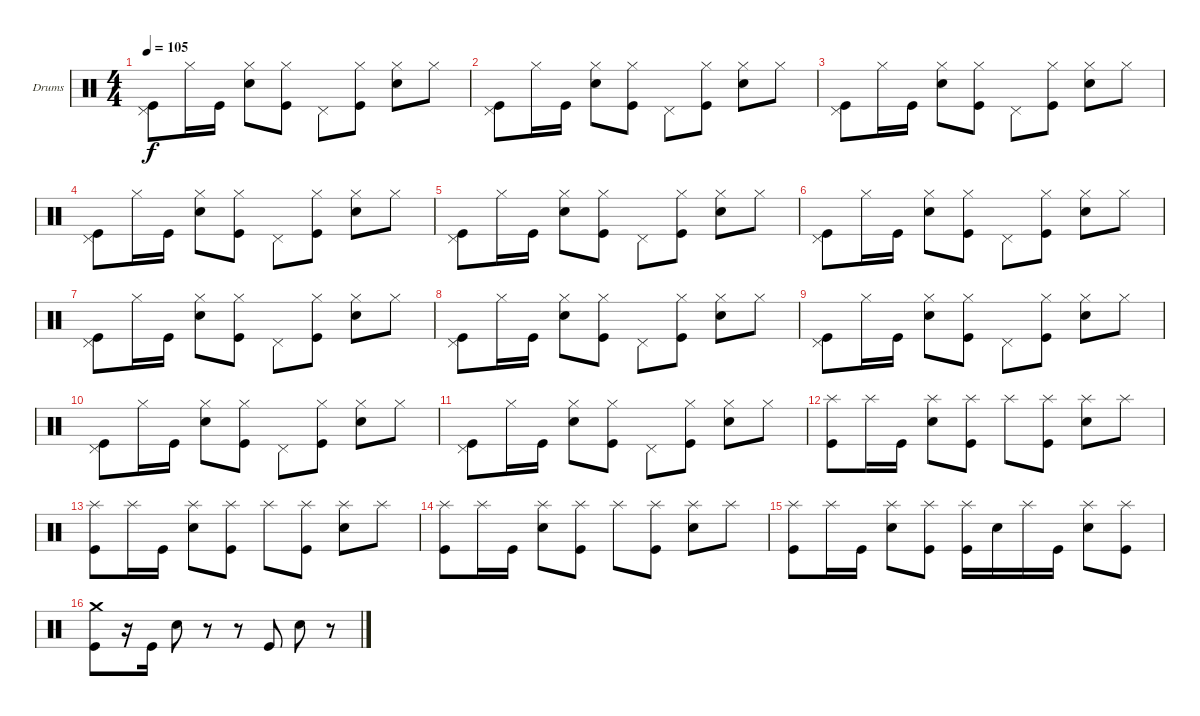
\defaultSystemsLayout 4
\bracketExtendMode nobrackets
\firstSystemTrackNameOrientation horizontal
\otherSystemsTrackNameOrientation horizontal
\track ("Dave Krusen" "Drums") {instrument percussion}
\staff {score}
\articulation defaults
\ts (4 4)
\tempo 105
\clef neutral
\ks c
("Kick (hit)" "Pedal Hi-Hat (hit)").8{dy f} "Hi-Hat (closed)".16 "Kick (hit)".16 ("Snare (hit) 2" "Hi-Hat (closed)").8 ("Kick (hit)" "Hi-Hat (closed)").8 "Pedal Hi-Hat (hit)".8 ("Kick (hit)" "Hi-Hat (closed)").8 ("Snare (hit) 2" "Hi-Hat (closed)").8 "Hi-Hat (closed)".8 |
("Kick (hit)" "Pedal Hi-Hat (hit)").8 "Hi-Hat (closed)".16 "Kick (hit)".16 ("Snare (hit) 2" "Hi-Hat (closed)").8 ("Kick (hit)" "Hi-Hat (closed)").8 "Pedal Hi-Hat (hit)".8 ("Kick (hit)" "Hi-Hat (closed)").8 ("Snare (hit) 2" "Hi-Hat (closed)").8 "Hi-Hat (closed)".8 |
("Kick (hit)" "Pedal Hi-Hat (hit)").8 "Hi-Hat (closed)".16 "Kick (hit)".16 ("Snare (hit) 2" "Hi-Hat (closed)").8 ("Kick (hit)" "Hi-Hat (closed)").8 "Pedal Hi-Hat (hit)".8 ("Kick (hit)" "Hi-Hat (closed)").8 ("Snare (hit) 2" "Hi-Hat (closed)").8 "Hi-Hat (closed)".8 |
("Kick (hit)" "Pedal Hi-Hat (hit)").8 "Hi-Hat (closed)".16 "Kick (hit)".16 ("Snare (hit) 2" "Hi-Hat (closed)").8 ("Kick (hit)" "Hi-Hat (closed)").8 "Pedal Hi-Hat (hit)".8 ("Kick (hit)" "Hi-Hat (closed)").8 ("Snare (hit) 2" "Hi-Hat (closed)").8 "Hi-Hat (closed)".8 |
("Kick (hit)" "Pedal Hi-Hat (hit)").8 "Hi-Hat (closed)".16 "Kick (hit)".16 ("Snare (hit) 2" "Hi-Hat (closed)").8 ("Kick (hit)" "Hi-Hat (closed)").8 "Pedal Hi-Hat (hit)".8 ("Kick (hit)" "Hi-Hat (closed)").8 ("Snare (hit) 2" "Hi-Hat (closed)").8 "Hi-Hat (closed)".8 |
("Kick (hit)" "Pedal Hi-Hat (hit)").8 "Hi-Hat (closed)".16 "Kick (hit)".16 ("Snare (hit) 2" "Hi-Hat (closed)").8 ("Kick (hit)" "Hi-Hat (closed)").8 "Pedal Hi-Hat (hit)".8 ("Kick (hit)" "Hi-Hat (closed)").8 ("Snare (hit) 2" "Hi-Hat (closed)").8 "Hi-Hat (closed)".8 |
("Kick (hit)" "Pedal Hi-Hat (hit)").8 "Hi-Hat (closed)".16 "Kick (hit)".16 ("Snare (hit) 2" "Hi-Hat (closed)").8 ("Kick (hit)" "Hi-Hat (closed)").8 "Pedal Hi-Hat (hit)".8 ("Kick (hit)" "Hi-Hat (closed)").8 ("Snare (hit) 2" "Hi-Hat (closed)").8 "Hi-Hat (closed)".8 |
("Kick (hit)" "Pedal Hi-Hat (hit)").8 "Hi-Hat (closed)".16 "Kick (hit)".16 ("Snare (hit) 2" "Hi-Hat (closed)").8 ("Kick (hit)" "Hi-Hat (closed)").8 "Pedal Hi-Hat (hit)".8 ("Kick (hit)" "Hi-Hat (closed)").8 ("Snare (hit) 2" "Hi-Hat (closed)").8 "Hi-Hat (closed)".8 |
("Kick (hit)" "Pedal Hi-Hat (hit)").8 "Hi-Hat (closed)".16 "Kick (hit)".16 ("Snare (hit) 2" "Hi-Hat (closed)").8 ("Kick (hit)" "Hi-Hat (closed)").8 "Pedal Hi-Hat (hit)".8 ("Kick (hit)" "Hi-Hat (closed)").8 ("Snare (hit) 2" "Hi-Hat (closed)").8 "Hi-Hat (closed)".8 |
("Kick (hit)" "Pedal Hi-Hat (hit)").8 "Hi-Hat (closed)".16 "Kick (hit)".16 ("Snare (hit) 2" "Hi-Hat (closed)").8 ("Kick (hit)" "Hi-Hat (closed)").8 "Pedal Hi-Hat (hit)".8 ("Kick (hit)" "Hi-Hat (closed)").8 ("Snare (hit) 2" "Hi-Hat (closed)").8 "Hi-Hat (closed)".8 |
("Kick (hit)" "Pedal Hi-Hat (hit)").8 "Hi-Hat (closed)".16 "Kick (hit)".16 ("Snare (hit) 2" "Hi-Hat (closed)").8 ("Kick (hit)" "Hi-Hat (closed)").8 "Pedal Hi-Hat (hit)".8 ("Kick (hit)" "Hi-Hat (closed)").8 ("Snare (hit) 2" "Hi-Hat (closed)").8 "Hi-Hat (closed)".8 |
("Kick (hit)" "Splash (hit)").8 "Splash (hit)".16 "Kick (hit)".16 ("Snare (hit) 2" "Splash (hit)").8 ("Kick (hit)" "Splash (hit)").8 "Splash (hit)".8 ("Kick (hit)" "Splash (hit)").8 ("Snare (hit) 2" "Splash (hit)").8 "Splash (hit)".8 |
("Kick (hit)" "Splash (hit)").8 "Splash (hit)".16 "Kick (hit)".16 ("Snare (hit) 2" "Splash (hit)").8 ("Kick (hit)" "Splash (hit)").8 "Splash (hit)".8 ("Kick (hit)" "Splash (hit)").8 ("Snare (hit) 2" "Splash (hit)").8 "Splash (hit)".8 |
("Kick (hit)" "Splash (hit)").8 "Splash (hit)".16 "Kick (hit)".16 ("Snare (hit) 2" "Splash (hit)").8 ("Kick (hit)" "Splash (hit)").8 "Splash (hit)".8 ("Kick (hit)" "Splash (hit)").8 ("Snare (hit) 2" "Splash (hit)").8 "Splash (hit)".8 |
("Kick (hit)" "Splash (hit)").8 "Splash (hit)".16 "Kick (hit)".16 ("Snare (hit) 2" "Splash (hit)").8 ("Kick (hit)" "Splash (hit)").8 ("Kick (hit)" "Splash (hit)").16 "Snare (hit) 2".16 "Splash (hit)".16 "Kick (hit)".16 ("Snare (hit) 2" "Splash (hit)").8 ("Kick (hit)" "Splash (hit)").8 |
("Crash medium (hit)" "Kick (hit)").8 r.16 "Kick (hit)".16 "Snare (hit) 2".8 r.8 r.8 "Kick (hit)".8 "Snare (hit) 2".8 r.8
